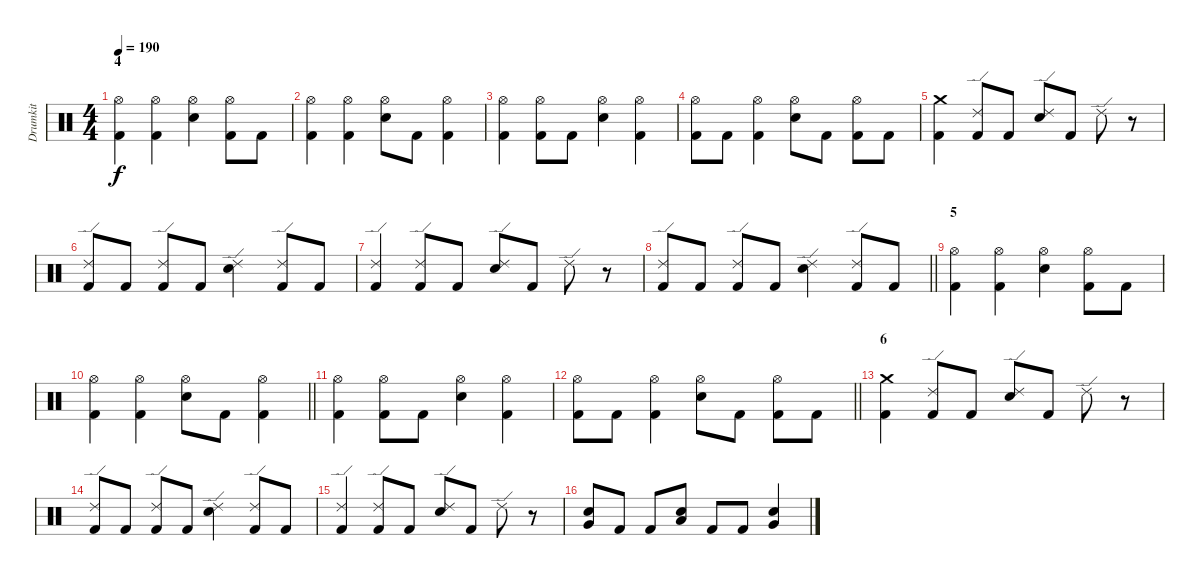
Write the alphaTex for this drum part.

\track ("Drumkit" "Drumkit") {instrument percussion}
\staff {score}
\articulation defaults
\ts (4 4)
\section ("" "4")
\tempo 190
\clef neutral
\ks c
("Hi-Hat (open)" "Kick (hit) 2").4{dy f} ("Hi-Hat (open)" "Kick (hit) 2").4 ("Hi-Hat (open)" "Snare (hit) 2").4 ("Hi-Hat (open)" "Kick (hit) 2").8 "Kick (hit) 2".8 |
("Hi-Hat (open)" "Kick (hit) 2").4 ("Hi-Hat (open)" "Kick (hit) 2").4 ("Hi-Hat (open)" "Snare (hit) 2").8 "Kick (hit) 2".8 ("Hi-Hat (open)" "Kick (hit) 2").4 |
("Hi-Hat (open)" "Kick (hit) 2").4 ("Hi-Hat (open)" "Kick (hit) 2").8 "Kick (hit) 2".8 ("Hi-Hat (open)" "Snare (hit) 2").4 ("Hi-Hat (open)" "Kick (hit) 2").4 |
("Hi-Hat (open)" "Kick (hit) 2").8 "Kick (hit) 2".8 ("Hi-Hat (open)" "Kick (hit) 2").4 ("Hi-Hat (open)" "Snare (hit) 2").8 "Kick (hit) 2".8 ("Hi-Hat (open)" "Kick (hit) 2").8 "Kick (hit) 2".8 |
("Crash medium (hit)" "Kick (hit) 2").4 ("Ride (edge) 2" "Kick (hit) 2").8 "Kick (hit) 2".8 ("Ride (edge) 2" "Snare (hit) 2").8 "Kick (hit) 2".8 "Ride (edge) 2".8 r.8 |
("Ride (edge) 2" "Kick (hit) 2").8 "Kick (hit) 2".8 ("Ride (edge) 2" "Kick (hit) 2").8 "Kick (hit) 2".8 ("Ride (edge) 2" "Snare (hit) 2").4 ("Ride (edge) 2" "Kick (hit) 2").8 "Kick (hit) 2".8 |
("Ride (edge) 2" "Kick (hit) 2").4 ("Ride (edge) 2" "Kick (hit) 2").8 "Kick (hit) 2".8 ("Ride (edge) 2" "Snare (hit) 2").8 "Kick (hit) 2".8 "Ride (edge) 2".8 r.8 |
\barLineRight lightlight
("Ride (edge) 2" "Kick (hit) 2").8 "Kick (hit) 2".8 ("Ride (edge) 2" "Kick (hit) 2").8 "Kick (hit) 2".8 ("Ride (edge) 2" "Snare (hit) 2").4 ("Ride (edge) 2" "Kick (hit) 2").8 "Kick (hit) 2".8 |
\section ("" "5")
("Hi-Hat (open)" "Kick (hit) 2").4 ("Hi-Hat (open)" "Kick (hit) 2").4 ("Hi-Hat (open)" "Snare (hit) 2").4 ("Hi-Hat (open)" "Kick (hit) 2").8 "Kick (hit) 2".8 |
\barLineRight lightlight
("Hi-Hat (open)" "Kick (hit) 2").4 ("Hi-Hat (open)" "Kick (hit) 2").4 ("Hi-Hat (open)" "Snare (hit) 2").8 "Kick (hit) 2".8 ("Hi-Hat (open)" "Kick (hit) 2").4 |
("Hi-Hat (open)" "Kick (hit) 2").4 ("Hi-Hat (open)" "Kick (hit) 2").8 "Kick (hit) 2".8 ("Hi-Hat (open)" "Snare (hit) 2").4 ("Hi-Hat (open)" "Kick (hit) 2").4 |
\barLineRight lightlight
("Hi-Hat (open)" "Kick (hit) 2").8 "Kick (hit) 2".8 ("Hi-Hat (open)" "Kick (hit) 2").4 ("Hi-Hat (open)" "Snare (hit) 2").8 "Kick (hit) 2".8 ("Hi-Hat (open)" "Kick (hit) 2").8 "Kick (hit) 2".8 |
\section ("" "6")
("Crash medium (hit)" "Kick (hit) 2").4 ("Ride (edge) 2" "Kick (hit) 2").8 "Kick (hit) 2".8 ("Ride (edge) 2" "Snare (hit) 2").8 "Kick (hit) 2".8 "Ride (edge) 2".8 r.8 |
("Ride (edge) 2" "Kick (hit) 2").8 "Kick (hit) 2".8 ("Ride (edge) 2" "Kick (hit) 2").8 "Kick (hit) 2".8 ("Ride (edge) 2" "Snare (hit) 2").4 ("Ride (edge) 2" "Kick (hit) 2").8 "Kick (hit) 2".8 |
("Ride (edge) 2" "Kick (hit) 2").4 ("Ride (edge) 2" "Kick (hit) 2").8 "Kick (hit) 2".8 ("Ride (edge) 2" "Snare (hit) 2").8 "Kick (hit) 2".8 "Ride (edge) 2".8 r.8 |
("Very Low Tom (hit)" "Snare (hit) 2").8 "Kick (hit) 2".8 "Kick (hit) 2".8 ("Low Tom (hit)" "Snare (hit) 2").8 "Kick (hit) 2".8 "Kick (hit) 2".8 ("Very Low Tom (hit)" "Snare (hit) 2").4
